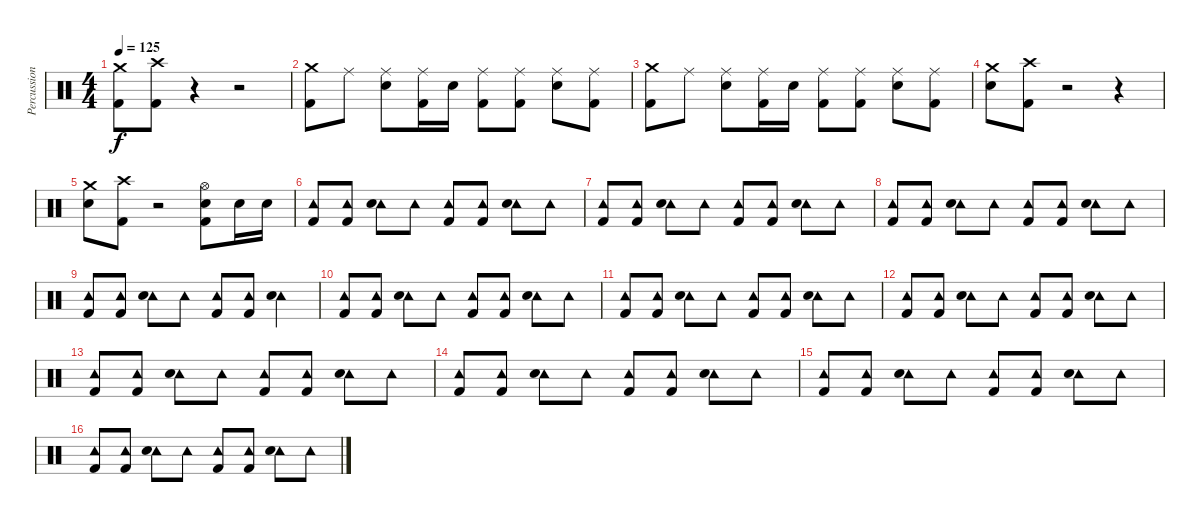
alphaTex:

\track ("Percussions" "Percussion") {instrument percussion}
\staff {score}
\articulation defaults
\ts (4 4)
\tempo 125
\clef neutral
\ks c
("Crash medium (hit)" "Kick (hit) 2").8{dy f} ("Crash high (hit)" "Kick (hit) 2").8 r.4 r.2 |
("Crash medium (hit)" "Kick (hit) 2").8 "Ride (middle)".8 ("Ride (middle)" "Electric Snare (hit)").8 ("Ride (middle)" "Kick (hit) 2").16 "Electric Snare (hit)".16 ("Ride (middle)" "Kick (hit) 2").8 ("Ride (middle)" "Kick (hit) 2").8 ("Ride (middle)" "Electric Snare (hit)").8 ("Ride (middle)" "Kick (hit) 2").8 |
("Crash medium (hit)" "Kick (hit) 2").8 "Ride (middle)".8 ("Ride (middle)" "Electric Snare (hit)").8 ("Ride (middle)" "Kick (hit) 2").16 "Electric Snare (hit)".16 ("Ride (middle)" "Kick (hit) 2").8 ("Ride (middle)" "Kick (hit) 2").8 ("Ride (middle)" "Electric Snare (hit)").8 ("Ride (middle)" "Kick (hit) 2").8 |
("Crash medium (hit)" "Snare (hit)").8 ("Crash high (hit)" "Kick (hit) 2").8 r.2 r.4 |
("Crash medium (hit)" "Snare (hit)").8 ("Crash high (hit)" "Kick (hit) 2").8 r.2 ("Hi-Hat (open)" "Electric Snare (hit)" "Kick (hit) 2").8 "Electric Snare (hit)".16 "Electric Snare (hit)".16 |
("Tambourine (hit)" "Kick (hit) 2").8 ("Tambourine (hit)" "Kick (hit) 2").8 ("Tambourine (hit)" "Electric Snare (hit)").8 "Tambourine (hit)".8 ("Tambourine (hit)" "Kick (hit) 2").8 ("Tambourine (hit)" "Kick (hit) 2").8 ("Tambourine (hit)" "Electric Snare (hit)").8 "Tambourine (hit)".8 |
("Tambourine (hit)" "Kick (hit) 2").8 ("Tambourine (hit)" "Kick (hit) 2").8 ("Tambourine (hit)" "Electric Snare (hit)").8 "Tambourine (hit)".8 ("Tambourine (hit)" "Kick (hit) 2").8 ("Tambourine (hit)" "Kick (hit) 2").8 ("Tambourine (hit)" "Electric Snare (hit)").8 "Tambourine (hit)".8 |
("Tambourine (hit)" "Kick (hit) 2").8 ("Tambourine (hit)" "Kick (hit) 2").8 ("Tambourine (hit)" "Electric Snare (hit)").8 "Tambourine (hit)".8 ("Tambourine (hit)" "Kick (hit) 2").8 ("Tambourine (hit)" "Kick (hit) 2").8 ("Tambourine (hit)" "Electric Snare (hit)").8 "Tambourine (hit)".8 |
("Tambourine (hit)" "Kick (hit) 2").8 ("Tambourine (hit)" "Kick (hit) 2").8 ("Tambourine (hit)" "Electric Snare (hit)").8 "Tambourine (hit)".8 ("Tambourine (hit)" "Kick (hit) 2").8 ("Tambourine (hit)" "Kick (hit) 2").8 ("Tambourine (hit)" "Electric Snare (hit)").4 |
("Tambourine (hit)" "Kick (hit) 2").8 ("Tambourine (hit)" "Kick (hit) 2").8 ("Tambourine (hit)" "Electric Snare (hit)").8 "Tambourine (hit)".8 ("Tambourine (hit)" "Kick (hit) 2").8 ("Tambourine (hit)" "Kick (hit) 2").8 ("Tambourine (hit)" "Electric Snare (hit)").8 "Tambourine (hit)".8 |
("Tambourine (hit)" "Kick (hit) 2").8 ("Tambourine (hit)" "Kick (hit) 2").8 ("Tambourine (hit)" "Electric Snare (hit)").8 "Tambourine (hit)".8 ("Tambourine (hit)" "Kick (hit) 2").8 ("Tambourine (hit)" "Kick (hit) 2").8 ("Tambourine (hit)" "Electric Snare (hit)").8 "Tambourine (hit)".8 |
("Tambourine (hit)" "Kick (hit) 2").8 ("Tambourine (hit)" "Kick (hit) 2").8 ("Tambourine (hit)" "Electric Snare (hit)").8 "Tambourine (hit)".8 ("Tambourine (hit)" "Kick (hit) 2").8 ("Tambourine (hit)" "Kick (hit) 2").8 ("Tambourine (hit)" "Electric Snare (hit)").8 "Tambourine (hit)".8 |
("Tambourine (hit)" "Kick (hit) 2").8 ("Tambourine (hit)" "Kick (hit) 2").8 ("Tambourine (hit)" "Electric Snare (hit)").8 "Tambourine (hit)".8 ("Tambourine (hit)" "Kick (hit) 2").8 ("Tambourine (hit)" "Kick (hit) 2").8 ("Tambourine (hit)" "Electric Snare (hit)").8 "Tambourine (hit)".8 |
("Tambourine (hit)" "Kick (hit) 2").8 ("Tambourine (hit)" "Kick (hit) 2").8 ("Tambourine (hit)" "Electric Snare (hit)").8 "Tambourine (hit)".8 ("Tambourine (hit)" "Kick (hit) 2").8 ("Tambourine (hit)" "Kick (hit) 2").8 ("Tambourine (hit)" "Electric Snare (hit)").8 "Tambourine (hit)".8 |
("Tambourine (hit)" "Kick (hit) 2").8 ("Tambourine (hit)" "Kick (hit) 2").8 ("Tambourine (hit)" "Electric Snare (hit)").8 "Tambourine (hit)".8 ("Tambourine (hit)" "Kick (hit) 2").8 ("Tambourine (hit)" "Kick (hit) 2").8 ("Tambourine (hit)" "Electric Snare (hit)").8 "Tambourine (hit)".8 |
("Tambourine (hit)" "Kick (hit) 2").8 ("Tambourine (hit)" "Kick (hit) 2").8 ("Tambourine (hit)" "Electric Snare (hit)").8 "Tambourine (hit)".8 ("Tambourine (hit)" "Kick (hit) 2").8 ("Tambourine (hit)" "Kick (hit) 2").8 ("Tambourine (hit)" "Electric Snare (hit)").8 "Tambourine (hit)".8
